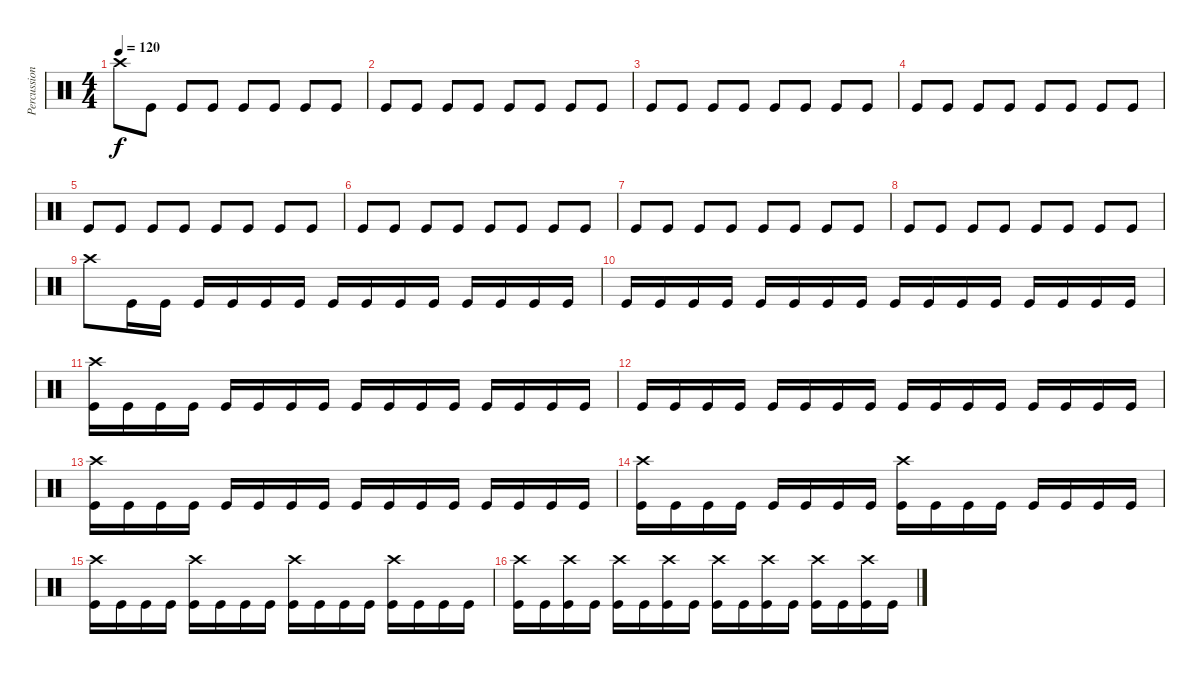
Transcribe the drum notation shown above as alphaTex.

\track ("Percussion" "Percussion") {instrument percussion}
\staff {score}
\articulation defaults
\ts (4 4)
\tempo 120
\clef neutral
\ks c "Crash high (hit)".8{dy f} "Kick (hit)".8 "Kick (hit)".8 "Kick (hit)".8 "Kick (hit)".8 "Kick (hit)".8 "Kick (hit)".8 "Kick (hit)".8
|
"Kick (hit)".8 "Kick (hit)".8 "Kick (hit)".8 "Kick (hit)".8 "Kick (hit)".8 "Kick (hit)".8 "Kick (hit)".8 "Kick (hit)".8 |
"Kick (hit)".8 "Kick (hit)".8 "Kick (hit)".8 "Kick (hit)".8 "Kick (hit)".8 "Kick (hit)".8 "Kick (hit)".8 "Kick (hit)".8 |
"Kick (hit)".8 "Kick (hit)".8 "Kick (hit)".8 "Kick (hit)".8 "Kick (hit)".8 "Kick (hit)".8 "Kick (hit)".8 "Kick (hit)".8 |
"Kick (hit)".8 "Kick (hit)".8 "Kick (hit)".8 "Kick (hit)".8 "Kick (hit)".8 "Kick (hit)".8 "Kick (hit)".8 "Kick (hit)".8 |
"Kick (hit)".8 "Kick (hit)".8 "Kick (hit)".8 "Kick (hit)".8 "Kick (hit)".8 "Kick (hit)".8 "Kick (hit)".8 "Kick (hit)".8 |
"Kick (hit)".8 "Kick (hit)".8 "Kick (hit)".8 "Kick (hit)".8 "Kick (hit)".8 "Kick (hit)".8 "Kick (hit)".8 "Kick (hit)".8 |
"Kick (hit)".8 "Kick (hit)".8 "Kick (hit)".8 "Kick (hit)".8 "Kick (hit)".8 "Kick (hit)".8 "Kick (hit)".8 "Kick (hit)".8 |
"Crash high (hit)".8 "Kick (hit)".16 "Kick (hit)".16 "Kick (hit)".16 "Kick (hit)".16 "Kick (hit)".16 "Kick (hit)".16 "Kick (hit)".16 "Kick (hit)".16 "Kick (hit)".16 "Kick (hit)".16 "Kick (hit)".16 "Kick (hit)".16 "Kick (hit)".16 "Kick (hit)".16 |
"Kick (hit)".16 "Kick (hit)".16 "Kick (hit)".16 "Kick (hit)".16 "Kick (hit)".16 "Kick (hit)".16 "Kick (hit)".16 "Kick (hit)".16 "Kick (hit)".16 "Kick (hit)".16 "Kick (hit)".16 "Kick (hit)".16 "Kick (hit)".16 "Kick (hit)".16 "Kick (hit)".16 "Kick (hit)".16 |
("Kick (hit)" "Crash high (hit)").16 "Kick (hit)".16 "Kick (hit)".16 "Kick (hit)".16 "Kick (hit)".16 "Kick (hit)".16 "Kick (hit)".16 "Kick (hit)".16 "Kick (hit)".16 "Kick (hit)".16 "Kick (hit)".16 "Kick (hit)".16 "Kick (hit)".16 "Kick (hit)".16 "Kick (hit)".16 "Kick (hit)".16 |
"Kick (hit)".16 "Kick (hit)".16 "Kick (hit)".16 "Kick (hit)".16 "Kick (hit)".16 "Kick (hit)".16 "Kick (hit)".16 "Kick (hit)".16 "Kick (hit)".16 "Kick (hit)".16 "Kick (hit)".16 "Kick (hit)".16 "Kick (hit)".16 "Kick (hit)".16 "Kick (hit)".16 "Kick (hit)".16 |
("Kick (hit)" "Crash high (hit)").16 "Kick (hit)".16 "Kick (hit)".16 "Kick (hit)".16 "Kick (hit)".16 "Kick (hit)".16 "Kick (hit)".16 "Kick (hit)".16 "Kick (hit)".16 "Kick (hit)".16 "Kick (hit)".16 "Kick (hit)".16 "Kick (hit)".16 "Kick (hit)".16 "Kick (hit)".16 "Kick (hit)".16 |
("Kick (hit)" "Crash high (hit)").16 "Kick (hit)".16 "Kick (hit)".16 "Kick (hit)".16 "Kick (hit)".16 "Kick (hit)".16 "Kick (hit)".16 "Kick (hit)".16 ("Kick (hit)" "Crash high (hit)").16 "Kick (hit)".16 "Kick (hit)".16 "Kick (hit)".16 "Kick (hit)".16 "Kick (hit)".16 "Kick (hit)".16 "Kick (hit)".16 |
("Kick (hit)" "Crash high (hit)").16 "Kick (hit)".16 "Kick (hit)".16 "Kick (hit)".16 ("Kick (hit)" "Crash high (hit)").16 "Kick (hit)".16 "Kick (hit)".16 "Kick (hit)".16 ("Kick (hit)" "Crash high (hit)").16 "Kick (hit)".16 "Kick (hit)".16 "Kick (hit)".16 ("Kick (hit)" "Crash high (hit)").16 "Kick (hit)".16 "Kick (hit)".16 "Kick (hit)".16 |
("Kick (hit)" "Crash high (hit)").16 "Kick (hit)".16 ("Kick (hit)" "Crash high (hit)").16 "Kick (hit)".16 ("Kick (hit)" "Crash high (hit)").16 "Kick (hit)".16 ("Kick (hit)" "Crash high (hit)").16 "Kick (hit)".16 ("Kick (hit)" "Crash high (hit)").16 "Kick (hit)".16 ("Kick (hit)" "Crash high (hit)").16 "Kick (hit)".16 ("Kick (hit)" "Crash high (hit)").16 "Kick (hit)".16 ("Kick (hit)" "Crash high (hit)").16 "Kick (hit)".16
